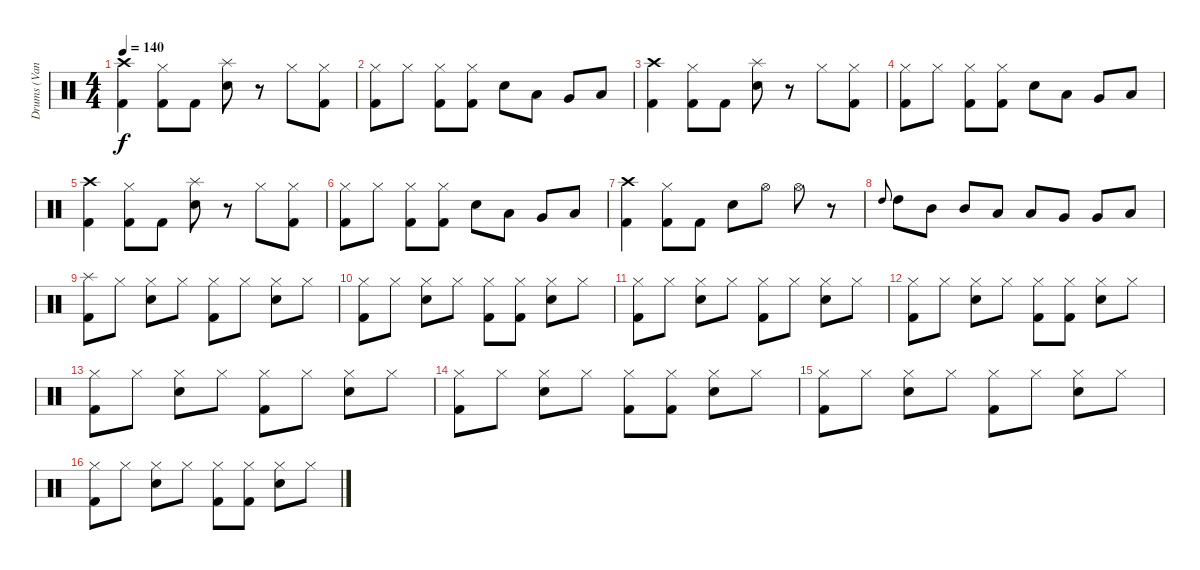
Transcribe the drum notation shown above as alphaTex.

\track ("Drums (Vandel)" "Drums (Van") {instrument percussion}
\staff {score}
\articulation defaults
\ts (4 4)
\tempo 140
\clef neutral
\ks c
("Crash high (hit)" "Kick (hit) 2").4{dy f} ("Hi-Hat (closed)" "Kick (hit) 2").8 "Kick (hit) 2".8 ("Splash (hit)" "Snare (hit) 2").8 r.8 "Hi-Hat (closed)".8 ("Hi-Hat (closed)" "Kick (hit) 2").8 |
("Hi-Hat (closed)" "Kick (hit) 2").8 "Hi-Hat (closed)".8 ("Hi-Hat (closed)" "Kick (hit) 2").8 ("Hi-Hat (closed)" "Kick (hit) 2").8 "Snare (hit) 2".8 "Low Tom (hit)".8 "Very Low Tom (hit)".8 "Low Floor Tom (hit)".8 |
("Crash high (hit)" "Kick (hit) 2").4 ("Hi-Hat (closed)" "Kick (hit) 2").8 "Kick (hit) 2".8 ("Splash (hit)" "Snare (hit) 2").8 r.8 "Hi-Hat (closed)".8 ("Hi-Hat (closed)" "Kick (hit) 2").8 |
("Hi-Hat (closed)" "Kick (hit) 2").8 "Hi-Hat (closed)".8 ("Hi-Hat (closed)" "Kick (hit) 2").8 ("Hi-Hat (closed)" "Kick (hit) 2").8 "Snare (hit) 2".8 "Low Tom (hit)".8 "Very Low Tom (hit)".8 "Low Floor Tom (hit)".8 |
("Crash high (hit)" "Kick (hit) 2").4 ("Hi-Hat (closed)" "Kick (hit) 2").8 "Kick (hit) 2".8 ("Splash (hit)" "Snare (hit) 2").8 r.8 "Hi-Hat (closed)".8 ("Hi-Hat (closed)" "Kick (hit) 2").8 |
("Hi-Hat (closed)" "Kick (hit) 2").8 "Hi-Hat (closed)".8 ("Hi-Hat (closed)" "Kick (hit) 2").8 ("Hi-Hat (closed)" "Kick (hit) 2").8 "Snare (hit) 2".8 "Low Tom (hit)".8 "Very Low Tom (hit)".8 "Low Floor Tom (hit)".8 |
("Crash high (hit)" "Kick (hit) 2").4 ("Hi-Hat (closed)" "Kick (hit) 2").8 "Kick (hit) 2".8 "Snare (hit) 2".8 "Hi-Hat (open)".8 "Hi-Hat (open)".8 r.8 |
"High Tom (hit)".8{gr onbeat} "High Tom (hit)".8 "Mid Tom (hit)".8 "Mid Tom (hit)".8 "Low Tom (hit)".8 "Low Tom (hit)".8 "Very Low Tom (hit)".8 "Very Low Tom (hit)".8 "Low Floor Tom (hit)".8 |
("Splash (hit)" "Kick (hit) 2").8 "Hi-Hat (closed)".8 ("Hi-Hat (closed)" "Snare (hit) 2").8 "Hi-Hat (closed)".8 ("Hi-Hat (closed)" "Kick (hit) 2").8 "Hi-Hat (closed)".8 ("Hi-Hat (closed)" "Snare (hit) 2").8 "Hi-Hat (closed)".8 |
("Hi-Hat (closed)" "Kick (hit) 2").8 "Hi-Hat (closed)".8 ("Hi-Hat (closed)" "Snare (hit) 2").8 "Hi-Hat (closed)".8 ("Hi-Hat (closed)" "Kick (hit) 2").8 ("Hi-Hat (closed)" "Kick (hit) 2").8 ("Hi-Hat (closed)" "Snare (hit) 2").8 "Hi-Hat (closed)".8 |
("Hi-Hat (closed)" "Kick (hit) 2").8 "Hi-Hat (closed)".8 ("Hi-Hat (closed)" "Snare (hit) 2").8 "Hi-Hat (closed)".8 ("Hi-Hat (closed)" "Kick (hit) 2").8 "Hi-Hat (closed)".8 ("Hi-Hat (closed)" "Snare (hit) 2").8 "Hi-Hat (closed)".8 |
("Hi-Hat (closed)" "Kick (hit) 2").8 "Hi-Hat (closed)".8 ("Hi-Hat (closed)" "Snare (hit) 2").8 "Hi-Hat (closed)".8 ("Hi-Hat (closed)" "Kick (hit) 2").8 ("Hi-Hat (closed)" "Kick (hit) 2").8 ("Hi-Hat (closed)" "Snare (hit) 2").8 "Hi-Hat (closed)".8 |
("Hi-Hat (closed)" "Kick (hit) 2").8 "Hi-Hat (closed)".8 ("Hi-Hat (closed)" "Snare (hit) 2").8 "Hi-Hat (closed)".8 ("Hi-Hat (closed)" "Kick (hit) 2").8 "Hi-Hat (closed)".8 ("Hi-Hat (closed)" "Snare (hit) 2").8 "Hi-Hat (closed)".8 |
("Hi-Hat (closed)" "Kick (hit) 2").8 "Hi-Hat (closed)".8 ("Hi-Hat (closed)" "Snare (hit) 2").8 "Hi-Hat (closed)".8 ("Hi-Hat (closed)" "Kick (hit) 2").8 ("Hi-Hat (closed)" "Kick (hit) 2").8 ("Hi-Hat (closed)" "Snare (hit) 2").8 "Hi-Hat (closed)".8 |
("Hi-Hat (closed)" "Kick (hit) 2").8 "Hi-Hat (closed)".8 ("Hi-Hat (closed)" "Snare (hit) 2").8 "Hi-Hat (closed)".8 ("Hi-Hat (closed)" "Kick (hit) 2").8 "Hi-Hat (closed)".8 ("Hi-Hat (closed)" "Snare (hit) 2").8 "Hi-Hat (closed)".8 |
("Hi-Hat (closed)" "Kick (hit) 2").8 "Hi-Hat (closed)".8 ("Hi-Hat (closed)" "Snare (hit) 2").8 "Hi-Hat (closed)".8 ("Hi-Hat (closed)" "Kick (hit) 2").8 ("Hi-Hat (closed)" "Kick (hit) 2").8 ("Hi-Hat (closed)" "Snare (hit) 2").8 "Hi-Hat (closed)".8
